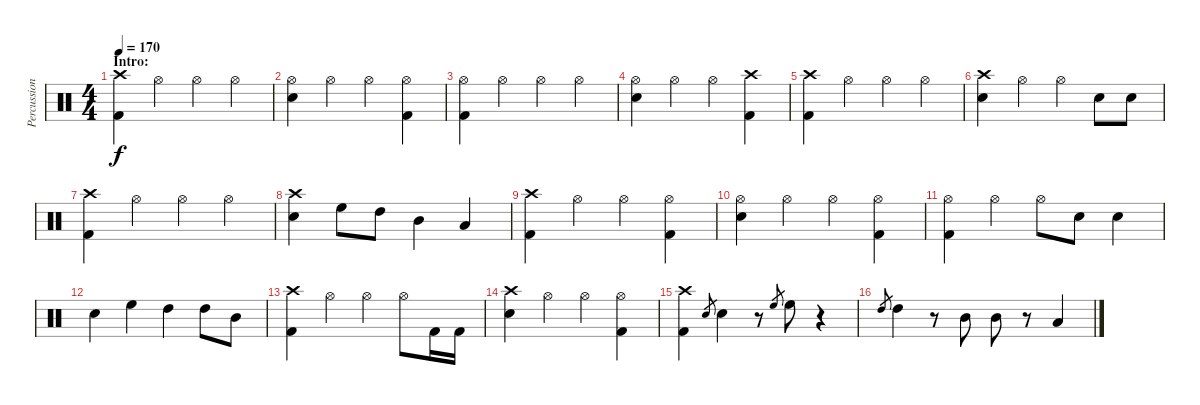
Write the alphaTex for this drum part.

\track ("Percussion" "Percussion") {instrument percussion}
\staff {score}
\articulation defaults
\ts (4 4)
\section ("" "Intro:")
\tempo 170
\tempo 165
\tempo 170
\clef neutral
\ks c
("Crash high (hit)" "Kick (hit) 2").4{dy f} "Hi-Hat (open)".4 "Hi-Hat (open)".4 "Hi-Hat (open)".4 |
("Hi-Hat (open)" "Electric Snare (hit)").4 "Hi-Hat (open)".4 "Hi-Hat (open)".4 ("Hi-Hat (open)" "Kick (hit) 2").4 |
("Hi-Hat (open)" "Kick (hit) 2").4 "Hi-Hat (open)".4 "Hi-Hat (open)".4 "Hi-Hat (open)".4 |
("Hi-Hat (open)" "Electric Snare (hit)").4 "Hi-Hat (open)".4 "Hi-Hat (open)".4 ("Crash high (hit)" "Kick (hit) 2").4 |
("Crash high (hit)" "Kick (hit) 2").4 "Hi-Hat (open)".4 "Hi-Hat (open)".4 "Hi-Hat (open)".4 |
("Crash high (hit)" "Electric Snare (hit)").4 "Hi-Hat (open)".4 "Hi-Hat (open)".4 "Electric Snare (hit)".8 "Electric Snare (hit)".8 |
("Crash high (hit)" "Kick (hit) 2").4 "Hi-Hat (open)".4 "Hi-Hat (open)".4 "Hi-Hat (open)".4 |
("Crash high (hit)" "Electric Snare (hit)").4 "High Floor Tom (hit)".8 "High Tom (hit)".8 "Mid Tom (hit)".4 "Low Tom (hit)".4 |
("Crash high (hit)" "Kick (hit) 2").4 "Hi-Hat (open)".4 "Hi-Hat (open)".4 ("Hi-Hat (open)" "Kick (hit) 2").4 |
("Hi-Hat (open)" "Electric Snare (hit)").4 "Hi-Hat (open)".4 "Hi-Hat (open)".4 ("Hi-Hat (open)" "Kick (hit) 2").4 |
("Hi-Hat (open)" "Kick (hit) 2").4 "Hi-Hat (open)".4 "Hi-Hat (open)".8 "Electric Snare (hit)".8 "Electric Snare (hit)".4 |
"Electric Snare (hit)".4 "High Floor Tom (hit)".4 "High Tom (hit)".4 "High Tom (hit)".8 "Mid Tom (hit)".8 |
("Crash high (hit)" "Kick (hit) 2").4 "Hi-Hat (open)".4 "Hi-Hat (open)".4 "Hi-Hat (open)".8 "Kick (hit) 2".16 "Kick (hit) 2".16 |
("Crash high (hit)" "Electric Snare (hit)").4 "Hi-Hat (open)".4 "Hi-Hat (open)".4 ("Hi-Hat (open)" "Kick (hit) 2").4 |
("Crash high (hit)" "Kick (hit) 2").4 "Electric Snare (hit)".8{gr} "Electric Snare (hit)".4 r.8 "High Floor Tom (hit)".8{gr} "High Floor Tom (hit)".8 r.4 |
"High Tom (hit)".8{gr} "High Tom (hit)".4 r.8 "Mid Tom (hit)".8 "Mid Tom (hit)".8 r.8 "Low Tom (hit)".4
